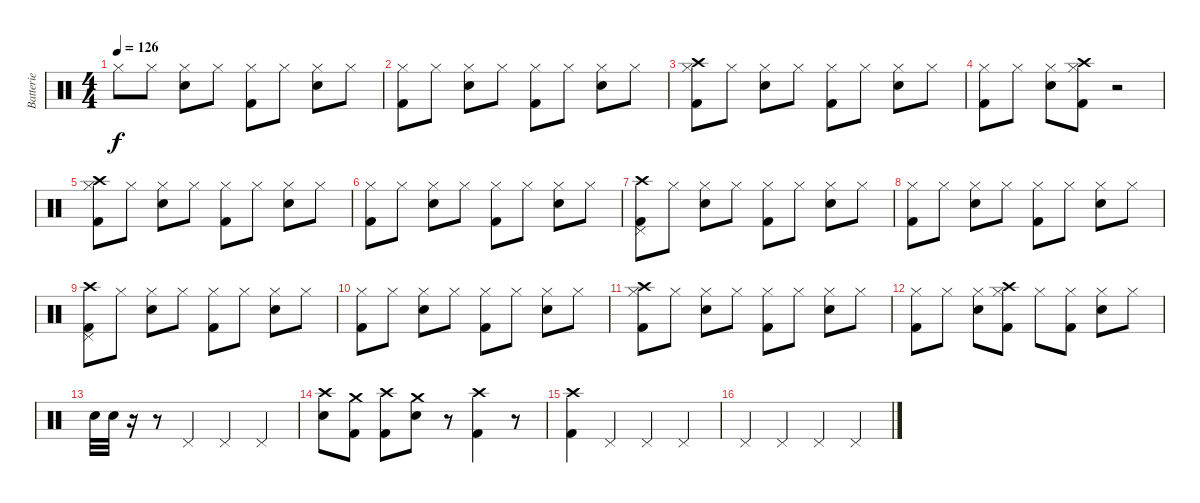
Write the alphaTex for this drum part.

\track ("Batterie" "Batterie") {instrument percussion}
\staff {score}
\articulation defaults
\ts (4 4)
\tempo 126
\clef neutral
\ks c "Hi-Hat (closed)".8{dy f} "Hi-Hat (closed)".8
("Hi-Hat (closed)" "Snare (hit) 2").8 "Hi-Hat (closed)".8 ("Hi-Hat (closed)" "Kick (hit) 2").8 "Hi-Hat (closed)".8 ("Hi-Hat (closed)" "Snare (hit) 2").8 "Hi-Hat (closed)".8 |
("Hi-Hat (closed)" "Kick (hit) 2").8 "Hi-Hat (closed)".8 ("Hi-Hat (closed)" "Snare (hit) 2").8 "Hi-Hat (closed)".8 ("Hi-Hat (closed)" "Kick (hit) 2").8 "Hi-Hat (closed)".8 ("Hi-Hat (closed)" "Snare (hit) 2").8 "Hi-Hat (closed)".8 |
("Hi-Hat (closed)" "Crash high (hit)" "Kick (hit) 2").8 "Hi-Hat (closed)".8 ("Hi-Hat (closed)" "Snare (hit) 2").8 "Hi-Hat (closed)".8 ("Hi-Hat (closed)" "Kick (hit) 2").8 "Hi-Hat (closed)".8 ("Hi-Hat (closed)" "Snare (hit) 2").8 "Hi-Hat (closed)".8 |
("Hi-Hat (closed)" "Kick (hit) 2").8 "Hi-Hat (closed)".8 ("Hi-Hat (closed)" "Snare (hit) 2").8 ("Hi-Hat (closed)" "Crash high (hit)" "Kick (hit) 2").8 r.2 |
("Hi-Hat (closed)" "Crash high (hit)" "Kick (hit) 2").8 "Hi-Hat (closed)".8 ("Hi-Hat (closed)" "Snare (hit) 2").8 "Hi-Hat (closed)".8 ("Hi-Hat (closed)" "Kick (hit) 2").8 "Hi-Hat (closed)".8 ("Hi-Hat (closed)" "Snare (hit) 2").8 "Hi-Hat (closed)".8 |
("Hi-Hat (closed)" "Kick (hit) 2").8 "Hi-Hat (closed)".8 ("Hi-Hat (closed)" "Snare (hit) 2").8 "Hi-Hat (closed)".8 ("Hi-Hat (closed)" "Kick (hit) 2").8 "Hi-Hat (closed)".8 ("Hi-Hat (closed)" "Snare (hit) 2").8 "Hi-Hat (closed)".8 |
("Pedal Hi-Hat (hit)" "Crash high (hit)" "Kick (hit) 2").8 "Hi-Hat (closed)".8 ("Hi-Hat (closed)" "Snare (hit) 2").8 "Hi-Hat (closed)".8 ("Hi-Hat (closed)" "Kick (hit) 2").8 "Hi-Hat (closed)".8 ("Hi-Hat (closed)" "Snare (hit) 2").8 "Hi-Hat (closed)".8 |
("Hi-Hat (closed)" "Kick (hit) 2").8 "Hi-Hat (closed)".8 ("Hi-Hat (closed)" "Snare (hit) 2").8 "Hi-Hat (closed)".8 ("Hi-Hat (closed)" "Kick (hit) 2").8 "Hi-Hat (closed)".8 ("Hi-Hat (closed)" "Snare (hit) 2").8 "Hi-Hat (closed)".8 |
("Pedal Hi-Hat (hit)" "Crash high (hit)" "Kick (hit) 2").8 "Hi-Hat (closed)".8 ("Hi-Hat (closed)" "Snare (hit) 2").8 "Hi-Hat (closed)".8 ("Hi-Hat (closed)" "Kick (hit) 2").8 "Hi-Hat (closed)".8 ("Hi-Hat (closed)" "Snare (hit) 2").8 "Hi-Hat (closed)".8 |
("Hi-Hat (closed)" "Kick (hit) 2").8 "Hi-Hat (closed)".8 ("Hi-Hat (closed)" "Snare (hit) 2").8 "Hi-Hat (closed)".8 ("Hi-Hat (closed)" "Kick (hit) 2").8 "Hi-Hat (closed)".8 ("Hi-Hat (closed)" "Snare (hit) 2").8 "Hi-Hat (closed)".8 |
("Hi-Hat (closed)" "Crash high (hit)" "Kick (hit) 2").8 "Hi-Hat (closed)".8 ("Hi-Hat (closed)" "Snare (hit) 2").8 "Hi-Hat (closed)".8 ("Hi-Hat (closed)" "Kick (hit) 2").8 "Hi-Hat (closed)".8 ("Hi-Hat (closed)" "Snare (hit) 2").8 "Hi-Hat (closed)".8 |
("Hi-Hat (closed)" "Kick (hit) 2").8 "Hi-Hat (closed)".8 ("Hi-Hat (closed)" "Snare (hit) 2").8 ("Hi-Hat (closed)" "Crash high (hit)" "Kick (hit) 2").8 "Hi-Hat (closed)".8 ("Hi-Hat (closed)" "Kick (hit) 2").8 ("Hi-Hat (closed)" "Snare (hit) 2").8 "Hi-Hat (closed)".8 |
"Snare (hit) 2".32 "Snare (hit) 2".32 r.16 r.8 "Pedal Hi-Hat (hit)".4 "Pedal Hi-Hat (hit)".4 "Pedal Hi-Hat (hit)".4 |
("Crash high (hit)" "Snare (hit) 2").8 ("Crash medium (hit)" "Kick (hit) 2").8 ("Crash high (hit)" "Kick (hit) 2").8 ("Crash medium (hit)" "Snare (hit) 2").8 r.8 ("Crash high (hit)" "Kick (hit) 2").4 r.8 |
("Crash high (hit)" "Kick (hit) 2").4 "Pedal Hi-Hat (hit)".4 "Pedal Hi-Hat (hit)".4 "Pedal Hi-Hat (hit)".4 |
"Pedal Hi-Hat (hit)".4 "Pedal Hi-Hat (hit)".4 "Pedal Hi-Hat (hit)".4 "Pedal Hi-Hat (hit)".4
